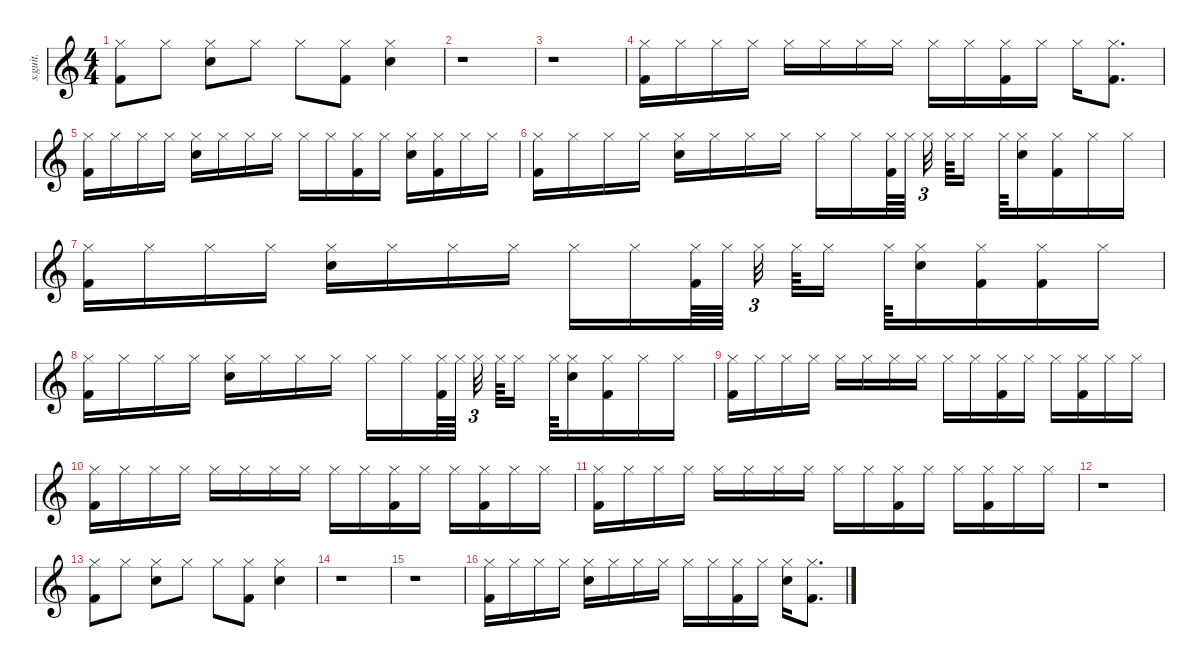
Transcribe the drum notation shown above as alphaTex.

\defaultSystemsLayout 4
\hideDynamics
\bracketExtendMode nobrackets
\track ("" "s.guit.") {instrument percussion}
\staff {score}
\articulation defaults
\ts (4 4)
\tempo (90 hide)
\clef g2
\ks c
("Hi-Hat (closed)" "Kick (hit) 2").8{dy f} "Hi-Hat (closed)".8 ("Hi-Hat (closed)" "Snare (hit) 2").8 "Hi-Hat (closed)".8 "Hi-Hat (closed)".8 ("Hi-Hat (closed)" "Kick (hit) 2").8 ("Hi-Hat (closed)" "Snare (hit) 2").4 |
r.1 |
r.1 |
("Hi-Hat (closed)" "Kick (hit) 2").16 "Hi-Hat (closed)".16 "Hi-Hat (closed)".16 "Hi-Hat (closed)".16 "Hi-Hat (closed)".16 "Hi-Hat (closed)".16 "Hi-Hat (closed)".16 "Hi-Hat (closed)".16 "Hi-Hat (closed)".16 "Hi-Hat (closed)".16 ("Hi-Hat (closed)" "Kick (hit) 2").16 "Hi-Hat (closed)".16 "Hi-Hat (closed)".16 ("Hi-Hat (closed)" "Kick (hit) 2").8{d} |
("Hi-Hat (closed)" "Kick (hit) 2").16 "Hi-Hat (closed)".16 "Hi-Hat (closed)".16 "Hi-Hat (closed)".16 ("Hi-Hat (closed)" "Snare (hit) 2").16 "Hi-Hat (closed)".16 "Hi-Hat (closed)".16 "Hi-Hat (closed)".16 "Hi-Hat (closed)".16 "Hi-Hat (closed)".16 ("Hi-Hat (closed)" "Kick (hit) 2").16 "Hi-Hat (closed)".16 ("Hi-Hat (closed)" "Snare (hit) 2").16 ("Hi-Hat (closed)" "Kick (hit) 2").16 "Hi-Hat (closed)".16 "Hi-Hat (closed)".16 |
("Hi-Hat (closed)" "Kick (hit) 2").16 "Hi-Hat (closed)".16 "Hi-Hat (closed)".16 "Hi-Hat (closed)".16 ("Hi-Hat (closed)" "Snare (hit) 2").16 "Hi-Hat (closed)".16 "Hi-Hat (closed)".16 "Hi-Hat (closed)".16 "Hi-Hat (closed)".16 "Hi-Hat (closed)".16 ("Hi-Hat (closed)" "Kick (hit) 2").64 "Hi-Hat (closed)".64 "Hi-Hat (closed)".32{tu (3 2)} "Hi-Hat (closed)".64 "Hi-Hat (closed)".16 "Hi-Hat (closed)".64 ("Hi-Hat (closed)" "Snare (hit) 2").16 ("Hi-Hat (closed)" "Kick (hit) 2").16 "Hi-Hat (closed)".16 "Hi-Hat (closed)".16 |
("Hi-Hat (closed)" "Kick (hit) 2").16 "Hi-Hat (closed)".16 "Hi-Hat (closed)".16 "Hi-Hat (closed)".16 ("Hi-Hat (closed)" "Snare (hit) 2").16 "Hi-Hat (closed)".16 "Hi-Hat (closed)".16 "Hi-Hat (closed)".16 "Hi-Hat (closed)".16 "Hi-Hat (closed)".16 ("Hi-Hat (closed)" "Kick (hit) 2").64 "Hi-Hat (closed)".64 "Hi-Hat (closed)".32{tu (3 2)} "Hi-Hat (closed)".64 "Hi-Hat (closed)".16 "Hi-Hat (closed)".64 ("Hi-Hat (closed)" "Snare (hit) 2").16 ("Hi-Hat (closed)" "Kick (hit) 2").16 ("Hi-Hat (closed)" "Kick (hit) 2").16 "Hi-Hat (closed)".16 |
("Hi-Hat (closed)" "Kick (hit) 2").16 "Hi-Hat (closed)".16 "Hi-Hat (closed)".16 "Hi-Hat (closed)".16 ("Hi-Hat (closed)" "Snare (hit) 2").16 "Hi-Hat (closed)".16 "Hi-Hat (closed)".16 "Hi-Hat (closed)".16 "Hi-Hat (closed)".16 "Hi-Hat (closed)".16 ("Hi-Hat (closed)" "Kick (hit) 2").64 "Hi-Hat (closed)".64 "Hi-Hat (closed)".32{tu (3 2)} "Hi-Hat (closed)".64 "Hi-Hat (closed)".16 "Hi-Hat (closed)".64 ("Hi-Hat (closed)" "Snare (hit) 2").16 ("Hi-Hat (closed)" "Kick (hit) 2").16 "Hi-Hat (closed)".16 "Hi-Hat (closed)".16 |
("Hi-Hat (closed)" "Kick (hit) 2").16 "Hi-Hat (closed)".16 "Hi-Hat (closed)".16 "Hi-Hat (closed)".16 "Hi-Hat (closed)".16 "Hi-Hat (closed)".16 "Hi-Hat (closed)".16 "Hi-Hat (closed)".16 "Hi-Hat (closed)".16 "Hi-Hat (closed)".16 ("Hi-Hat (closed)" "Kick (hit) 2").16 "Hi-Hat (closed)".16 "Hi-Hat (closed)".16 ("Hi-Hat (closed)" "Kick (hit) 2").16 "Hi-Hat (closed)".16 "Hi-Hat (closed)".16 |
("Hi-Hat (closed)" "Kick (hit) 2").16 "Hi-Hat (closed)".16 "Hi-Hat (closed)".16 "Hi-Hat (closed)".16 "Hi-Hat (closed)".16 "Hi-Hat (closed)".16 "Hi-Hat (closed)".16 "Hi-Hat (closed)".16 "Hi-Hat (closed)".16 "Hi-Hat (closed)".16 ("Hi-Hat (closed)" "Kick (hit) 2").16 "Hi-Hat (closed)".16 "Hi-Hat (closed)".16 ("Hi-Hat (closed)" "Kick (hit) 2").16 "Hi-Hat (closed)".16 "Hi-Hat (closed)".16 |
("Hi-Hat (closed)" "Kick (hit) 2").16 "Hi-Hat (closed)".16 "Hi-Hat (closed)".16 "Hi-Hat (closed)".16 "Hi-Hat (closed)".16 "Hi-Hat (closed)".16 "Hi-Hat (closed)".16 "Hi-Hat (closed)".16 "Hi-Hat (closed)".16 "Hi-Hat (closed)".16 ("Hi-Hat (closed)" "Kick (hit) 2").16 "Hi-Hat (closed)".16 "Hi-Hat (closed)".16 ("Hi-Hat (closed)" "Kick (hit) 2").16 "Hi-Hat (closed)".16 "Hi-Hat (closed)".16 |
r.1 |
("Hi-Hat (closed)" "Kick (hit) 2").8 "Hi-Hat (closed)".8 ("Hi-Hat (closed)" "Snare (hit) 2").8 "Hi-Hat (closed)".8 "Hi-Hat (closed)".8 ("Hi-Hat (closed)" "Kick (hit) 2").8 ("Hi-Hat (closed)" "Snare (hit) 2").4 |
r.1 |
r.1 |
("Hi-Hat (closed)" "Kick (hit) 2").16 "Hi-Hat (closed)".16 "Hi-Hat (closed)".16 "Hi-Hat (closed)".16 ("Hi-Hat (closed)" "Snare (hit) 2").16 "Hi-Hat (closed)".16 "Hi-Hat (closed)".16 "Hi-Hat (closed)".16 "Hi-Hat (closed)".16 "Hi-Hat (closed)".16 ("Hi-Hat (closed)" "Kick (hit) 2").16 "Hi-Hat (closed)".16 ("Hi-Hat (closed)" "Snare (hit) 2").16 ("Hi-Hat (closed)" "Kick (hit) 2").8{d}
